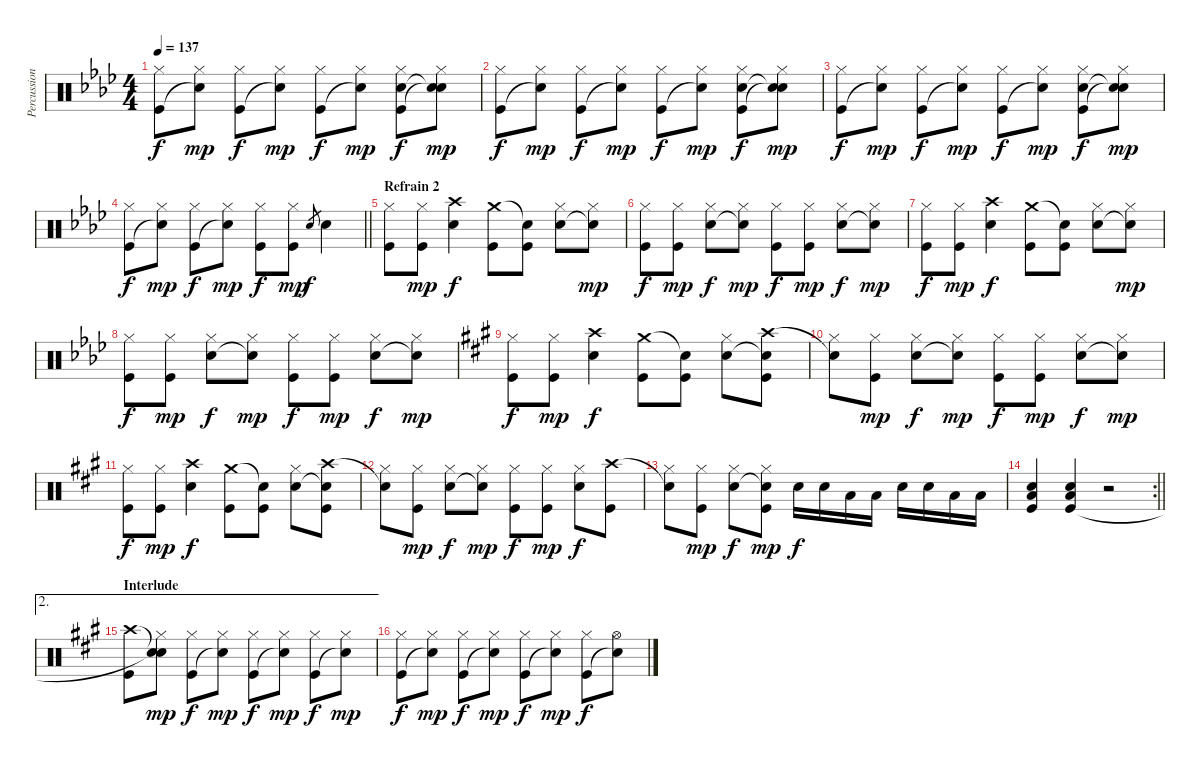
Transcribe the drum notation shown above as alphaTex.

\track ("Percussion" "Percussion") {instrument percussion}
\staff {score}
\articulation defaults
\ts (4 4)
\tempo 137
\clef neutral
\ks ab
("Hi-Hat (closed)" "Kick (hit)").8{dy f} ("Hi-Hat (closed)" "Snare (hit)"{t}).8{dy mp} ("Hi-Hat (closed)" "Kick (hit)").8{dy f} ("Hi-Hat (closed)" "Snare (hit)"{t}).8{dy mp} ("Hi-Hat (closed)" "Kick (hit)").8{dy f} ("Hi-Hat (closed)" "Snare (hit)"{t}).8{dy mp} ("Hi-Hat (closed)" "Electric Snare (hit)" "Kick (hit)").8{dy f} ("Hi-Hat (closed)" "Snare (hit)"{t} "Snare (hit)"{t}).8{dy mp} |
("Hi-Hat (closed)" "Kick (hit)").8{dy f} ("Hi-Hat (closed)" "Snare (hit)"{t}).8{dy mp} ("Hi-Hat (closed)" "Kick (hit)").8{dy f} ("Hi-Hat (closed)" "Snare (hit)"{t}).8{dy mp} ("Hi-Hat (closed)" "Kick (hit)").8{dy f} ("Hi-Hat (closed)" "Snare (hit)"{t}).8{dy mp} ("Hi-Hat (closed)" "Electric Snare (hit)" "Kick (hit)").8{dy f} ("Hi-Hat (closed)" "Snare (hit)"{t} "Snare (hit)"{t}).8{dy mp} |
("Hi-Hat (closed)" "Kick (hit)").8{dy f} ("Hi-Hat (closed)" "Snare (hit)"{t}).8{dy mp} ("Hi-Hat (closed)" "Kick (hit)").8{dy f} ("Hi-Hat (closed)" "Snare (hit)"{t}).8{dy mp} ("Hi-Hat (closed)" "Kick (hit)").8{dy f} ("Hi-Hat (closed)" "Snare (hit)"{t}).8{dy mp} ("Hi-Hat (closed)" "Electric Snare (hit)" "Kick (hit)").8{dy f} ("Hi-Hat (closed)" "Snare (hit)"{t} "Snare (hit)"{t}).8{dy mp} |
\barLineRight lightlight
("Hi-Hat (closed)" "Kick (hit)").8{dy f} ("Hi-Hat (closed)" "Snare (hit)"{t}).8{dy mp} ("Hi-Hat (closed)" "Kick (hit)").8{dy f} ("Hi-Hat (closed)" "Snare (hit)"{t}).8{dy mp} ("Hi-Hat (closed)" "Kick (hit)").8{dy f} ("Hi-Hat (closed)" "Kick (hit)").8{dy mp} "Electric Snare (hit)".8{gr dy f} "Electric Snare (hit)".4 |
\section ("" "Refrain 2")
("Hi-Hat (closed)" "Kick (hit)").8 ("Hi-Hat (closed)" "Kick (hit)").8{dy mp} ("Crash high (hit)" "Electric Snare (hit)").4{dy f} ("Crash medium (hit)" "Kick (hit)").8 ("Snare (hit)"{t} "Kick (hit)").8 ("Hi-Hat (closed)" "Electric Snare (hit)").8 ("Hi-Hat (closed)" "Snare (hit)"{t}).8{dy mp} |
("Hi-Hat (closed)" "Kick (hit)").8{dy f} ("Hi-Hat (closed)" "Kick (hit)").8{dy mp} ("Hi-Hat (closed)" "Electric Snare (hit)").8{dy f} ("Hi-Hat (closed)" "Snare (hit)"{t}).8{dy mp} ("Hi-Hat (closed)" "Kick (hit)").8{dy f} ("Hi-Hat (closed)" "Kick (hit)").8{dy mp} ("Hi-Hat (closed)" "Electric Snare (hit)").8{dy f} ("Hi-Hat (closed)" "Snare (hit)"{t}).8{dy mp} |
("Hi-Hat (closed)" "Kick (hit)").8{dy f} ("Hi-Hat (closed)" "Kick (hit)").8{dy mp} ("Crash high (hit)" "Electric Snare (hit)").4{dy f} ("Crash medium (hit)" "Kick (hit)").8 ("Snare (hit)"{t} "Kick (hit)").8 ("Hi-Hat (closed)" "Electric Snare (hit)").8 ("Hi-Hat (closed)" "Snare (hit)"{t}).8{dy mp} |
("Hi-Hat (closed)" "Kick (hit)").8{dy f} ("Hi-Hat (closed)" "Kick (hit)").8{dy mp} ("Hi-Hat (closed)" "Electric Snare (hit)").8{dy f} ("Hi-Hat (closed)" "Snare (hit)"{t}).8{dy mp} ("Hi-Hat (closed)" "Kick (hit)").8{dy f} ("Hi-Hat (closed)" "Kick (hit)").8{dy mp} ("Hi-Hat (closed)" "Electric Snare (hit)").8{dy f} ("Hi-Hat (closed)" "Snare (hit)"{t}).8{dy mp} |
\ks a
("Hi-Hat (closed)" "Kick (hit)").8{dy f} ("Hi-Hat (closed)" "Kick (hit)").8{dy mp} ("Crash high (hit)" "Electric Snare (hit)").4{dy f} ("Crash medium (hit)" "Kick (hit)").8 ("Snare (hit)"{t} "Kick (hit)").8 ("Hi-Hat (closed)" "Electric Snare (hit)").8 ("Crash high (hit)" "Snare (hit)"{t} "Kick (hit)").8 |
("Snare (hit)"{t} "Hi-Hat (closed)").8 ("Hi-Hat (closed)" "Kick (hit)").8{dy mp} ("Hi-Hat (closed)" "Electric Snare (hit)").8{dy f} ("Hi-Hat (closed)" "Snare (hit)"{t}).8{dy mp} ("Hi-Hat (closed)" "Kick (hit)").8{dy f} ("Hi-Hat (closed)" "Kick (hit)").8{dy mp} ("Hi-Hat (closed)" "Electric Snare (hit)").8{dy f} ("Hi-Hat (closed)" "Snare (hit)"{t}).8{dy mp} |
("Hi-Hat (closed)" "Kick (hit)").8{dy f} ("Hi-Hat (closed)" "Kick (hit)").8{dy mp} ("Crash high (hit)" "Electric Snare (hit)").4{dy f} ("Crash medium (hit)" "Kick (hit)").8 ("Snare (hit)"{t} "Kick (hit)").8 ("Hi-Hat (closed)" "Electric Snare (hit)").8 ("Crash high (hit)" "Snare (hit)"{t} "Kick (hit)").8 |
("Snare (hit)"{t} "Hi-Hat (closed)").8 ("Hi-Hat (closed)" "Kick (hit)").8{dy mp} ("Hi-Hat (closed)" "Electric Snare (hit)").8{dy f} ("Hi-Hat (closed)" "Snare (hit)"{t}).8{dy mp} ("Hi-Hat (closed)" "Kick (hit)").8{dy f} ("Hi-Hat (closed)" "Kick (hit)").8{dy mp} ("Hi-Hat (closed)" "Electric Snare (hit)").8{dy f} ("Crash high (hit)" "Kick (hit)").8 |
("Snare (hit)"{t} "Hi-Hat (closed)").8 ("Hi-Hat (closed)" "Kick (hit)").8{dy mp} ("Hi-Hat (closed)" "Electric Snare (hit)").8{dy f} ("Hi-Hat (closed)" "Snare (hit)"{t} "Kick (hit)").8{dy mp} "Electric Snare (hit)".16{dy f} "Electric Snare (hit)".16 "Low Tom (hit)".16 "Low Tom (hit)".16 "Electric Snare (hit)".16 "Electric Snare (hit)".16 "Low Tom (hit)".16 "Low Tom (hit)".16 |
\rc 2
\barLineRight lightlight
("Low Floor Tom (hit)" "Electric Snare (hit)" "Kick (hit)").4 ("Low Floor Tom (hit)" "Electric Snare (hit)" "Kick (hit)").4 r.2 |
\ae 2
\section ("" "Interlude")
("Crash high (hit)" "Kick (hit)").8 ("Snare (hit)"{t} "Hi-Hat (closed)" "Snare (hit)"{t}).8{dy mp} ("Hi-Hat (closed)" "Kick (hit)").8{dy f} ("Hi-Hat (closed)" "Snare (hit)"{t}).8{dy mp} ("Hi-Hat (closed)" "Kick (hit)").8{dy f} ("Hi-Hat (closed)" "Snare (hit)"{t}).8{dy mp} ("Hi-Hat (closed)" "Kick (hit)").8{dy f} ("Hi-Hat (closed)" "Snare (hit)"{t}).8{dy mp} |
("Hi-Hat (closed)" "Kick (hit)").8{dy f} ("Hi-Hat (closed)" "Snare (hit)"{t}).8{dy mp} ("Hi-Hat (closed)" "Kick (hit)").8{dy f} ("Hi-Hat (closed)" "Snare (hit)"{t}).8{dy mp} ("Hi-Hat (closed)" "Kick (hit)").8{dy f} ("Hi-Hat (closed)" "Snare (hit)"{t}).8{dy mp} ("Hi-Hat (closed)" "Kick (hit)").8{dy f} ("Hi-Hat (open)" "Snare (hit)"{t}).8
